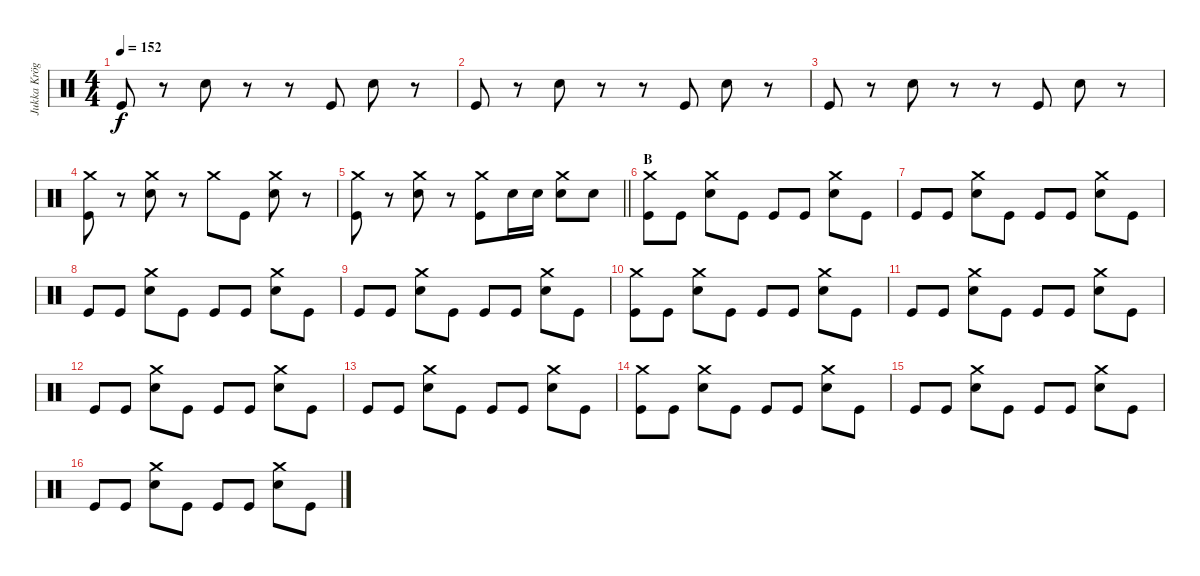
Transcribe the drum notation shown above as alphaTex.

\track ("Jukka Kröger" "Jukka Krög") {instrument percussion}
\staff {score}
\articulation defaults
\ts (4 4)
\tempo 152
\clef neutral
\ks aminor "Kick (hit)".8{dy f}
r.8 "Snare (hit) 2".8 r.8 r.8 "Kick (hit)".8 "Snare (hit) 2".8 r.8 |
"Kick (hit)".8 r.8 "Snare (hit) 2".8 r.8 r.8 "Kick (hit)".8 "Snare (hit) 2".8 r.8 |
"Kick (hit)".8 r.8 "Snare (hit) 2".8 r.8 r.8 "Kick (hit)".8 "Snare (hit) 2".8 r.8 |
("Crash medium (hit)" "Kick (hit)").8 r.8 ("Crash medium (hit)" "Snare (hit) 2").8 r.8 "Crash medium (hit)".8 "Kick (hit)".8 ("Crash medium (hit)" "Snare (hit) 2").8 r.8 |
\barLineRight lightlight
("Crash medium (hit)" "Kick (hit)").8 r.8 ("Crash medium (hit)" "Snare (hit) 2").8 r.8 ("Crash medium (hit)" "Kick (hit)").8 "Snare (hit) 2".16 "Snare (hit) 2".16 ("Crash medium (hit)" "Snare (hit) 2").8 "Snare (hit) 2".8 |
\section ("" "B")
("Crash medium (hit)" "Kick (hit)").8 "Kick (hit)".8 ("Crash medium (hit)" "Snare (hit) 2").8 "Kick (hit)".8 "Kick (hit)".8 "Kick (hit)".8 ("Crash medium (hit)" "Snare (hit) 2").8 "Kick (hit)".8 |
"Kick (hit)".8 "Kick (hit)".8 ("Crash medium (hit)" "Snare (hit) 2").8 "Kick (hit)".8 "Kick (hit)".8 "Kick (hit)".8 ("Crash medium (hit)" "Snare (hit) 2").8 "Kick (hit)".8 |
"Kick (hit)".8 "Kick (hit)".8 ("Crash medium (hit)" "Snare (hit) 2").8 "Kick (hit)".8 "Kick (hit)".8 "Kick (hit)".8 ("Crash medium (hit)" "Snare (hit) 2").8 "Kick (hit)".8 |
"Kick (hit)".8 "Kick (hit)".8 ("Crash medium (hit)" "Snare (hit) 2").8 "Kick (hit)".8 "Kick (hit)".8 "Kick (hit)".8 ("Crash medium (hit)" "Snare (hit) 2").8 "Kick (hit)".8 |
("Crash medium (hit)" "Kick (hit)").8 "Kick (hit)".8 ("Crash medium (hit)" "Snare (hit) 2").8 "Kick (hit)".8 "Kick (hit)".8 "Kick (hit)".8 ("Crash medium (hit)" "Snare (hit) 2").8 "Kick (hit)".8 |
"Kick (hit)".8 "Kick (hit)".8 ("Crash medium (hit)" "Snare (hit) 2").8 "Kick (hit)".8 "Kick (hit)".8 "Kick (hit)".8 ("Crash medium (hit)" "Snare (hit) 2").8 "Kick (hit)".8 |
"Kick (hit)".8 "Kick (hit)".8 ("Crash medium (hit)" "Snare (hit) 2").8 "Kick (hit)".8 "Kick (hit)".8 "Kick (hit)".8 ("Crash medium (hit)" "Snare (hit) 2").8 "Kick (hit)".8 |
"Kick (hit)".8 "Kick (hit)".8 ("Crash medium (hit)" "Snare (hit) 2").8 "Kick (hit)".8 "Kick (hit)".8 "Kick (hit)".8 ("Crash medium (hit)" "Snare (hit) 2").8 "Kick (hit)".8 |
("Crash medium (hit)" "Kick (hit)").8 "Kick (hit)".8 ("Crash medium (hit)" "Snare (hit) 2").8 "Kick (hit)".8 "Kick (hit)".8 "Kick (hit)".8 ("Crash medium (hit)" "Snare (hit) 2").8 "Kick (hit)".8 |
"Kick (hit)".8 "Kick (hit)".8 ("Crash medium (hit)" "Snare (hit) 2").8 "Kick (hit)".8 "Kick (hit)".8 "Kick (hit)".8 ("Crash medium (hit)" "Snare (hit) 2").8 "Kick (hit)".8 |
"Kick (hit)".8 "Kick (hit)".8 ("Crash medium (hit)" "Snare (hit) 2").8 "Kick (hit)".8 "Kick (hit)".8 "Kick (hit)".8 ("Crash medium (hit)" "Snare (hit) 2").8 "Kick (hit)".8
